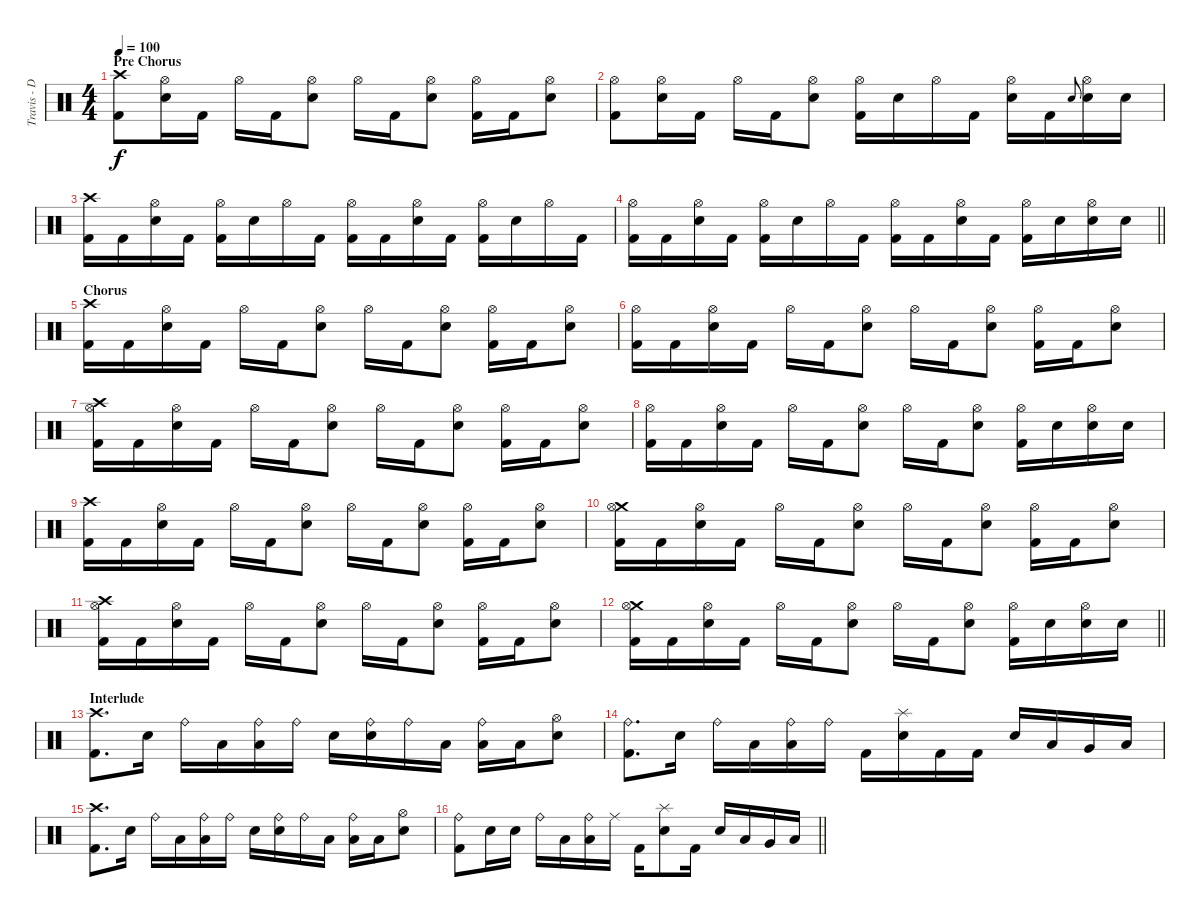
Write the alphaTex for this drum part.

\track ("Travis - Drums" "Travis - D") {instrument percussion}
\staff {score}
\articulation defaults
\ts (4 4)
\section ("" "Pre Chorus")
\tempo 100
\clef neutral
\ks c
("Crash high (hit)" "Kick (hit) 2").8{dy f} ("Hi-Hat (open)" "Electric Snare (hit)").16 "Kick (hit) 2".16 "Hi-Hat (open)".16 "Kick (hit) 2".16 ("Hi-Hat (open)" "Electric Snare (hit)").8 "Hi-Hat (open)".16 "Kick (hit) 2".16 ("Hi-Hat (open)" "Electric Snare (hit)").8 ("Hi-Hat (open)" "Kick (hit) 2").16 "Kick (hit) 2".16 ("Hi-Hat (open)" "Electric Snare (hit)").8 |
("Hi-Hat (open)" "Kick (hit) 2").8 ("Hi-Hat (open)" "Electric Snare (hit)").16 "Kick (hit) 2".16 "Hi-Hat (open)".16 "Kick (hit) 2".16 ("Hi-Hat (open)" "Electric Snare (hit)").8 ("Hi-Hat (open)" "Kick (hit) 2").16 "Electric Snare (hit)".16 "Hi-Hat (open)".16 "Kick (hit) 2".16 ("Hi-Hat (open)" "Electric Snare (hit)").16 "Kick (hit) 2".16 "Electric Snare (hit)".8{gr onbeat} ("Hi-Hat (open)" "Electric Snare (hit)").16 "Electric Snare (hit)".16 |
("Crash high (hit)" "Kick (hit) 2").16 "Kick (hit) 2".16 ("Hi-Hat (open)" "Electric Snare (hit)").16 "Kick (hit) 2".16 ("Hi-Hat (open)" "Kick (hit) 2").16 "Electric Snare (hit)".16 "Hi-Hat (open)".16 "Kick (hit) 2".16 ("Hi-Hat (open)" "Kick (hit) 2").16 "Kick (hit) 2".16 ("Hi-Hat (open)" "Electric Snare (hit)").16 "Kick (hit) 2".16 ("Hi-Hat (open)" "Kick (hit) 2").16 "Electric Snare (hit)".16 "Hi-Hat (open)".16 "Kick (hit) 2".16 |
\barLineRight lightlight
("Hi-Hat (open)" "Kick (hit) 2").16 "Kick (hit) 2".16 ("Hi-Hat (open)" "Electric Snare (hit)").16 "Kick (hit) 2".16 ("Hi-Hat (open)" "Kick (hit) 2").16 "Electric Snare (hit)".16 "Hi-Hat (open)".16 "Kick (hit) 2".16 ("Hi-Hat (open)" "Kick (hit) 2").16 "Kick (hit) 2".16 ("Hi-Hat (open)" "Electric Snare (hit)").16 "Kick (hit) 2".16 ("Hi-Hat (open)" "Kick (hit) 2").16 "Electric Snare (hit)".16 ("Hi-Hat (open)" "Electric Snare (hit)").16 "Electric Snare (hit)".16 |
\section ("" "Chorus")
("Crash high (hit)" "Kick (hit) 2").16 "Kick (hit) 2".16 ("Hi-Hat (open)" "Electric Snare (hit)").16 "Kick (hit) 2".16 "Hi-Hat (open)".16 "Kick (hit) 2".16 ("Hi-Hat (open)" "Electric Snare (hit)").8 "Hi-Hat (open)".16 "Kick (hit) 2".16 ("Hi-Hat (open)" "Electric Snare (hit)").8 ("Hi-Hat (open)" "Kick (hit) 2").16 "Kick (hit) 2".16 ("Hi-Hat (open)" "Electric Snare (hit)").8 |
("Hi-Hat (open)" "Kick (hit) 2").16 "Kick (hit) 2".16 ("Hi-Hat (open)" "Electric Snare (hit)").16 "Kick (hit) 2".16 "Hi-Hat (open)".16 "Kick (hit) 2".16 ("Hi-Hat (open)" "Electric Snare (hit)").8 "Hi-Hat (open)".16 "Kick (hit) 2".16 ("Hi-Hat (open)" "Electric Snare (hit)").8 ("Hi-Hat (open)" "Kick (hit) 2").16 "Kick (hit) 2".16 ("Hi-Hat (open)" "Electric Snare (hit)").8 |
("Crash high (hit)" "Hi-Hat (open)" "Kick (hit) 2").16 "Kick (hit) 2".16 ("Hi-Hat (open)" "Electric Snare (hit)").16 "Kick (hit) 2".16 "Hi-Hat (open)".16 "Kick (hit) 2".16 ("Hi-Hat (open)" "Electric Snare (hit)").8 "Hi-Hat (open)".16 "Kick (hit) 2".16 ("Hi-Hat (open)" "Electric Snare (hit)").8 ("Hi-Hat (open)" "Kick (hit) 2").16 "Kick (hit) 2".16 ("Hi-Hat (open)" "Electric Snare (hit)").8 |
("Hi-Hat (open)" "Kick (hit) 2").16 "Kick (hit) 2".16 ("Hi-Hat (open)" "Electric Snare (hit)").16 "Kick (hit) 2".16 "Hi-Hat (open)".16 "Kick (hit) 2".16 ("Hi-Hat (open)" "Electric Snare (hit)").8 "Hi-Hat (open)".16 "Kick (hit) 2".16 ("Hi-Hat (open)" "Electric Snare (hit)").8 ("Hi-Hat (open)" "Kick (hit) 2").16 "Electric Snare (hit)".16 ("Hi-Hat (open)" "Electric Snare (hit)").16 "Electric Snare (hit)".16 |
("Crash high (hit)" "Kick (hit) 2").16 "Kick (hit) 2".16 ("Hi-Hat (open)" "Electric Snare (hit)").16 "Kick (hit) 2".16 "Hi-Hat (open)".16 "Kick (hit) 2".16 ("Hi-Hat (open)" "Electric Snare (hit)").8 "Hi-Hat (open)".16 "Kick (hit) 2".16 ("Hi-Hat (open)" "Electric Snare (hit)").8 ("Hi-Hat (open)" "Kick (hit) 2").16 "Kick (hit) 2".16 ("Hi-Hat (open)" "Electric Snare (hit)").8 |
("Crash medium (hit)" "Hi-Hat (open)" "Kick (hit) 2").16 "Kick (hit) 2".16 ("Hi-Hat (open)" "Electric Snare (hit)").16 "Kick (hit) 2".16 "Hi-Hat (open)".16 "Kick (hit) 2".16 ("Hi-Hat (open)" "Electric Snare (hit)").8 "Hi-Hat (open)".16 "Kick (hit) 2".16 ("Hi-Hat (open)" "Electric Snare (hit)").8 ("Hi-Hat (open)" "Kick (hit) 2").16 "Kick (hit) 2".16 ("Hi-Hat (open)" "Electric Snare (hit)").8 |
("Crash high (hit)" "Hi-Hat (open)" "Kick (hit) 2").16 "Kick (hit) 2".16 ("Hi-Hat (open)" "Electric Snare (hit)").16 "Kick (hit) 2".16 "Hi-Hat (open)".16 "Kick (hit) 2".16 ("Hi-Hat (open)" "Electric Snare (hit)").8 "Hi-Hat (open)".16 "Kick (hit) 2".16 ("Hi-Hat (open)" "Electric Snare (hit)").8 ("Hi-Hat (open)" "Kick (hit) 2").16 "Kick (hit) 2".16 ("Hi-Hat (open)" "Electric Snare (hit)").8 |
\barLineRight lightlight
("Crash medium (hit)" "Hi-Hat (open)" "Kick (hit) 2").16 "Kick (hit) 2".16 ("Hi-Hat (open)" "Electric Snare (hit)").16 "Kick (hit) 2".16 "Hi-Hat (open)".16 "Kick (hit) 2".16 ("Hi-Hat (open)" "Electric Snare (hit)").8 "Hi-Hat (open)".16 "Kick (hit) 2".16 ("Hi-Hat (open)" "Electric Snare (hit)").8 ("Hi-Hat (open)" "Kick (hit) 2").16 "Electric Snare (hit)".16 ("Hi-Hat (open)" "Electric Snare (hit)").16 "Electric Snare (hit)".16 |
\section ("" "Interlude")
("Crash high (hit)" "Kick (hit) 2").8{d} "Electric Snare (hit)".16 "Ride (bell)".16 "Low Tom (hit)".16 ("Ride (bell)" "Low Tom (hit)").16 "Ride (bell)".16 "Electric Snare (hit)".16 ("Ride (bell)" "Electric Snare (hit)").16 "Ride (bell)".16 "Low Tom (hit)".16 ("Ride (bell)" "Low Tom (hit)").16 "Low Tom (hit)".16 ("Hi-Hat (open)" "Electric Snare (hit)").8 |
("Ride (bell)" "Kick (hit) 2").8{d} "Electric Snare (hit)".16 "Ride (bell)".16 "Low Tom (hit)".16 ("Ride (bell)" "Low Tom (hit)").16 "Ride (bell)".16 "Kick (hit) 2".16 ("Splash (hit)" "Electric Snare (hit)").16 "Kick (hit) 2".16 "Kick (hit) 2".16 "Electric Snare (hit)".16 "Low Tom (hit)".16 "Very Low Tom (hit)".16 "Low Floor Tom (hit)".16 |
("Crash high (hit)" "Kick (hit) 2").8{d} "Electric Snare (hit)".16 "Ride (bell)".16 "Low Tom (hit)".16 ("Ride (bell)" "Low Tom (hit)").16 "Ride (bell)".16 "Electric Snare (hit)".16 ("Ride (bell)" "Electric Snare (hit)").16 "Ride (bell)".16 "Low Tom (hit)".16 ("Ride (bell)" "Low Tom (hit)").16 "Low Tom (hit)".16 ("Hi-Hat (open)" "Electric Snare (hit)").8 |
\barLineRight lightlight
("Ride (bell)" "Kick (hit) 2").8 "Electric Snare (hit)".16 "Electric Snare (hit)".16 "Ride (bell)".16 "Low Tom (hit)".16 ("Ride (bell)" "Low Tom (hit)").16 "Ride (middle)".16 "Kick (hit) 2".16 ("Splash (hit)" "Electric Snare (hit)").8 "Kick (hit) 2".16 "Electric Snare (hit)".16 "Low Tom (hit)".16 "Very Low Tom (hit)".16 "Low Floor Tom (hit)".16
